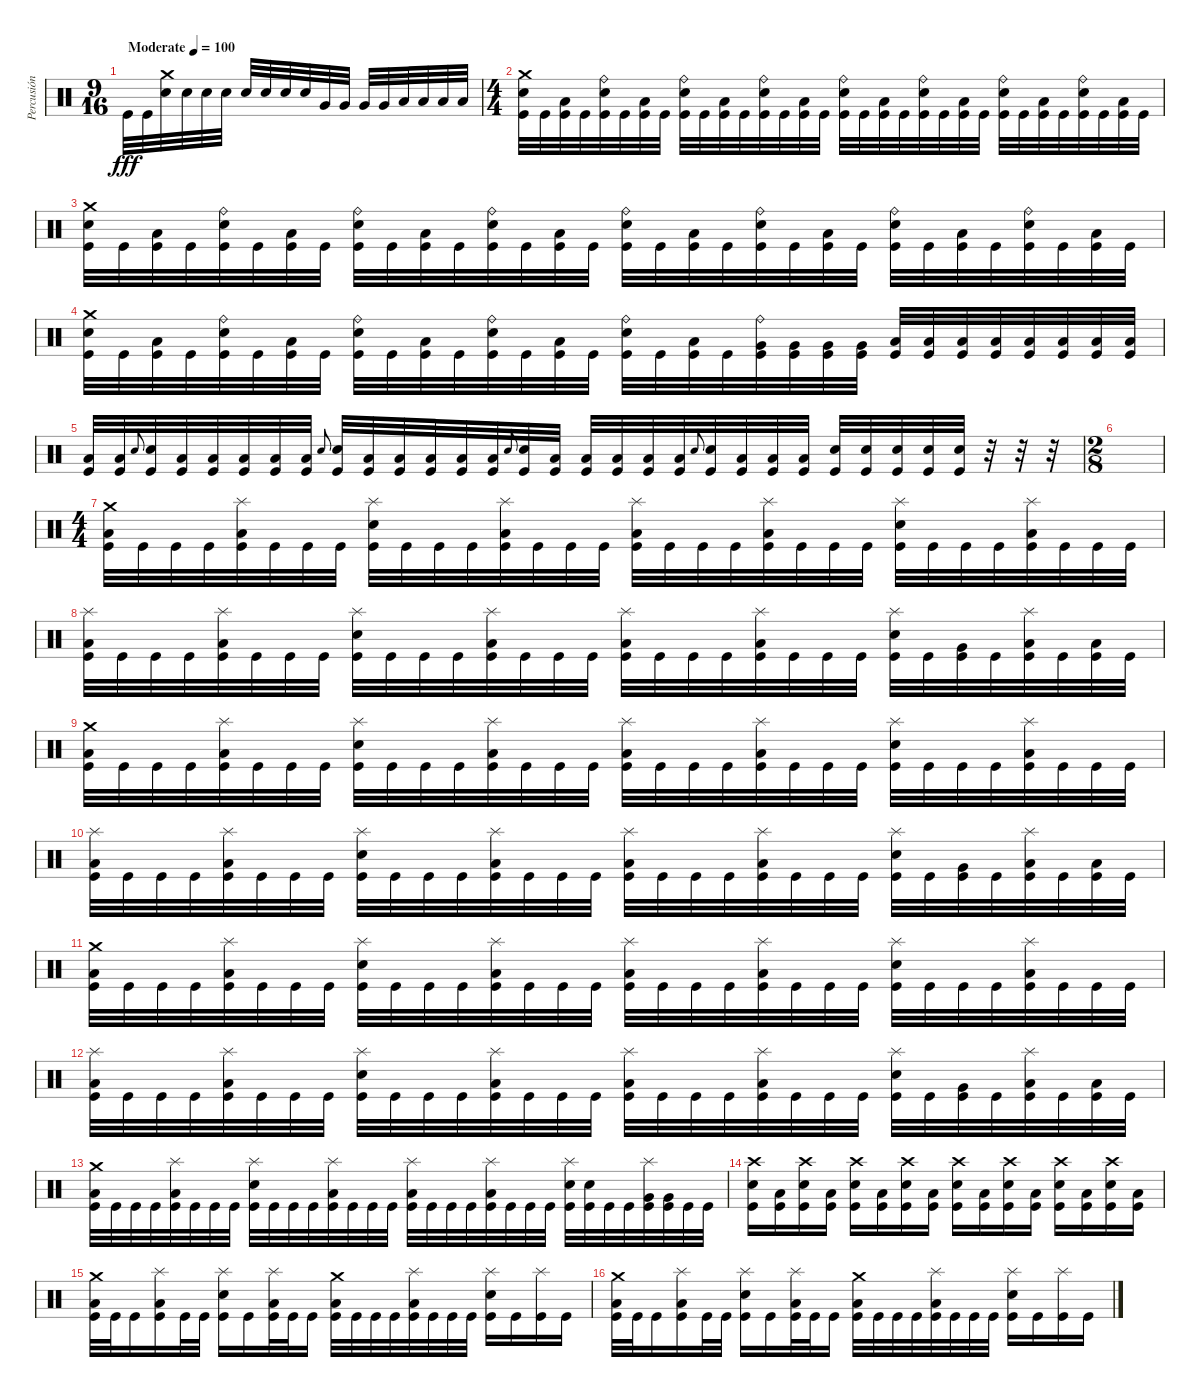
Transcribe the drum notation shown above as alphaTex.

\track ("Percusión" "Percusión") {instrument percussion}
\staff {score}
\articulation defaults
\ts (9 16)
\tempo (100 "Moderate")
\clef neutral
\ks c "Kick (hit)".32{dy fff} "Kick (hit)".32
("Crash medium (hit)" "Snare (hit) 2").32 "Snare (hit) 2".32 "Snare (hit) 2".32 "Snare (hit) 2".32 "Snare (hit) 2".32 "Snare (hit) 2".32 "Snare (hit) 2".32 "Snare (hit) 2".32 "Very Low Tom (hit)".32 "Very Low Tom (hit)".32 "Very Low Tom (hit)".32 "Very Low Tom (hit)".32 "Low Floor Tom (hit)".32 "Low Floor Tom (hit)".32 "Low Floor Tom (hit)".32 "Low Floor Tom (hit)".32 |
\ts (4 4)
("Crash medium (hit)" "Snare (hit) 2" "Kick (hit)").32 "Kick (hit)".32 ("Low Floor Tom (hit)" "Kick (hit)").32 "Kick (hit)".32 ("Ride (bell)" "Snare (hit) 2" "Kick (hit)").32 "Kick (hit)".32 ("Low Floor Tom (hit)" "Kick (hit)").32 "Kick (hit)".32 ("Ride (bell)" "Snare (hit) 2" "Kick (hit)").32 "Kick (hit)".32 ("Low Floor Tom (hit)" "Kick (hit)").32 "Kick (hit)".32 ("Ride (bell)" "Snare (hit) 2" "Kick (hit)").32 "Kick (hit)".32 ("Low Floor Tom (hit)" "Kick (hit)").32 "Kick (hit)".32 ("Ride (bell)" "Snare (hit) 2" "Kick (hit)").32 "Kick (hit)".32 ("Low Floor Tom (hit)" "Kick (hit)").32 "Kick (hit)".32 ("Ride (bell)" "Snare (hit) 2" "Kick (hit)").32 "Kick (hit)".32 ("Low Floor Tom (hit)" "Kick (hit)").32 "Kick (hit)".32 ("Ride (bell)" "Snare (hit) 2" "Kick (hit)").32 "Kick (hit)".32 ("Low Floor Tom (hit)" "Kick (hit)").32 "Kick (hit)".32 ("Ride (bell)" "Snare (hit) 2" "Kick (hit)").32 "Kick (hit)".32 ("Low Floor Tom (hit)" "Kick (hit)").32 "Kick (hit)".32 |
("Crash medium (hit)" "Snare (hit) 2" "Kick (hit)").32 "Kick (hit)".32 ("Low Floor Tom (hit)" "Kick (hit)").32 "Kick (hit)".32 ("Ride (bell)" "Snare (hit) 2" "Kick (hit)").32 "Kick (hit)".32 ("Low Floor Tom (hit)" "Kick (hit)").32 "Kick (hit)".32 ("Ride (bell)" "Snare (hit) 2" "Kick (hit)").32 "Kick (hit)".32 ("Low Floor Tom (hit)" "Kick (hit)").32 "Kick (hit)".32 ("Ride (bell)" "Snare (hit) 2" "Kick (hit)").32 "Kick (hit)".32 ("Low Floor Tom (hit)" "Kick (hit)").32 "Kick (hit)".32 ("Ride (bell)" "Snare (hit) 2" "Kick (hit)").32 "Kick (hit)".32 ("Low Floor Tom (hit)" "Kick (hit)").32 "Kick (hit)".32 ("Ride (bell)" "Snare (hit) 2" "Kick (hit)").32 "Kick (hit)".32 ("Low Floor Tom (hit)" "Kick (hit)").32 "Kick (hit)".32 ("Ride (bell)" "Snare (hit) 2" "Kick (hit)").32 "Kick (hit)".32 ("Low Floor Tom (hit)" "Kick (hit)").32 "Kick (hit)".32 ("Ride (bell)" "Snare (hit) 2" "Kick (hit)").32 "Kick (hit)".32 ("Low Floor Tom (hit)" "Kick (hit)").32 "Kick (hit)".32 |
("Crash medium (hit)" "Snare (hit) 2" "Kick (hit)").32 "Kick (hit)".32 ("Low Floor Tom (hit)" "Kick (hit)").32 "Kick (hit)".32 ("Ride (bell)" "Snare (hit) 2" "Kick (hit)").32 "Kick (hit)".32 ("Low Floor Tom (hit)" "Kick (hit)").32 "Kick (hit)".32 ("Ride (bell)" "Snare (hit) 2" "Kick (hit)").32 "Kick (hit)".32 ("Low Floor Tom (hit)" "Kick (hit)").32 "Kick (hit)".32 ("Ride (bell)" "Snare (hit) 2" "Kick (hit)").32 "Kick (hit)".32 ("Low Floor Tom (hit)" "Kick (hit)").32 "Kick (hit)".32 ("Ride (bell)" "Snare (hit) 2" "Kick (hit)").32 "Kick (hit)".32 ("Low Floor Tom (hit)" "Kick (hit)").32 "Kick (hit)".32 ("Ride (bell)" "Very Low Tom (hit)" "Kick (hit)").32 ("Very Low Tom (hit)" "Kick (hit)").32 ("Very Low Tom (hit)" "Kick (hit)").32 ("Very Low Tom (hit)" "Kick (hit)").32 ("Low Floor Tom (hit)" "Kick (hit)").32 ("Low Floor Tom (hit)" "Kick (hit)").32 ("Low Floor Tom (hit)" "Kick (hit)").32 ("Low Floor Tom (hit)" "Kick (hit)").32 ("Low Floor Tom (hit)" "Kick (hit)").32 ("Low Floor Tom (hit)" "Kick (hit)").32 ("Low Floor Tom (hit)" "Kick (hit)").32 ("Low Floor Tom (hit)" "Kick (hit)").32 |
("Low Floor Tom (hit)" "Kick (hit)").32 ("Low Floor Tom (hit)" "Kick (hit)").32 "Snare (hit) 2".8{gr onbeat} ("Snare (hit) 2" "Kick (hit)").32 ("Low Floor Tom (hit)" "Kick (hit)").32 ("Low Floor Tom (hit)" "Kick (hit)").32 ("Low Floor Tom (hit)" "Kick (hit)").32 ("Low Floor Tom (hit)" "Kick (hit)").32 ("Low Floor Tom (hit)" "Kick (hit)").32 "Snare (hit) 2".8{gr onbeat} ("Snare (hit) 2" "Kick (hit)").32 ("Low Floor Tom (hit)" "Kick (hit)").32 ("Low Floor Tom (hit)" "Kick (hit)").32 ("Low Floor Tom (hit)" "Kick (hit)").32 ("Low Floor Tom (hit)" "Kick (hit)").32 ("Low Floor Tom (hit)" "Kick (hit)").32 "Snare (hit) 2".8{gr onbeat} ("Snare (hit) 2" "Kick (hit)").32 ("Low Floor Tom (hit)" "Kick (hit)").32 ("Low Floor Tom (hit)" "Kick (hit)").32 ("Low Floor Tom (hit)" "Kick (hit)").32 ("Low Floor Tom (hit)" "Kick (hit)").32 ("Low Floor Tom (hit)" "Kick (hit)").32 "Snare (hit) 2".8{gr onbeat} ("Snare (hit) 2" "Kick (hit)").32 ("Low Floor Tom (hit)" "Kick (hit)").32 ("Low Floor Tom (hit)" "Kick (hit)").32 ("Low Floor Tom (hit)" "Kick (hit)").32 ("Snare (hit) 2" "Kick (hit)").32 ("Snare (hit) 2" "Kick (hit)").32 ("Snare (hit) 2" "Kick (hit)").32 ("Snare (hit) 2" "Kick (hit)").32 ("Snare (hit) 2" "Kick (hit)").32 r.32 r.32 r.32 |
\ts (2 8)
|
\ts (4 4)
("Crash medium (hit)" "Low Floor Tom (hit)" "Kick (hit)").32 "Kick (hit)".32 "Kick (hit)".32 "Kick (hit)".32 ("Splash (hit)" "Low Floor Tom (hit)" "Kick (hit)").32 "Kick (hit)".32 "Kick (hit)".32 "Kick (hit)".32 ("Splash (hit)" "Snare (hit) 2" "Kick (hit)").32 "Kick (hit)".32 "Kick (hit)".32 "Kick (hit)".32 ("Splash (hit)" "Low Floor Tom (hit)" "Kick (hit)").32 "Kick (hit)".32 "Kick (hit)".32 "Kick (hit)".32 ("Splash (hit)" "Low Floor Tom (hit)" "Kick (hit)").32 "Kick (hit)".32 "Kick (hit)".32 "Kick (hit)".32 ("Splash (hit)" "Low Floor Tom (hit)" "Kick (hit)").32 "Kick (hit)".32 "Kick (hit)".32 "Kick (hit)".32 ("Splash (hit)" "Snare (hit) 2" "Kick (hit)").32 "Kick (hit)".32 "Kick (hit)".32 "Kick (hit)".32 ("Splash (hit)" "Low Floor Tom (hit)" "Kick (hit)").32 "Kick (hit)".32 "Kick (hit)".32 "Kick (hit)".32 |
("Splash (hit)" "Low Floor Tom (hit)" "Kick (hit)").32 "Kick (hit)".32 "Kick (hit)".32 "Kick (hit)".32 ("Splash (hit)" "Low Floor Tom (hit)" "Kick (hit)").32 "Kick (hit)".32 "Kick (hit)".32 "Kick (hit)".32 ("Splash (hit)" "Snare (hit) 2" "Kick (hit)").32 "Kick (hit)".32 "Kick (hit)".32 "Kick (hit)".32 ("Splash (hit)" "Low Floor Tom (hit)" "Kick (hit)").32 "Kick (hit)".32 "Kick (hit)".32 "Kick (hit)".32 ("Splash (hit)" "Low Floor Tom (hit)" "Kick (hit)").32 "Kick (hit)".32 "Kick (hit)".32 "Kick (hit)".32 ("Splash (hit)" "Low Floor Tom (hit)" "Kick (hit)").32 "Kick (hit)".32 "Kick (hit)".32 "Kick (hit)".32 ("Splash (hit)" "Snare (hit) 2" "Kick (hit)").32 "Kick (hit)".32 ("Very Low Tom (hit)" "Kick (hit)").32 "Kick (hit)".32 ("Splash (hit)" "Low Floor Tom (hit)" "Kick (hit)").32 "Kick (hit)".32 ("Low Floor Tom (hit)" "Kick (hit)").32 "Kick (hit)".32 |
("Crash medium (hit)" "Low Floor Tom (hit)" "Kick (hit)").32 "Kick (hit)".32 "Kick (hit)".32 "Kick (hit)".32 ("Splash (hit)" "Low Floor Tom (hit)" "Kick (hit)").32 "Kick (hit)".32 "Kick (hit)".32 "Kick (hit)".32 ("Splash (hit)" "Snare (hit) 2" "Kick (hit)").32 "Kick (hit)".32 "Kick (hit)".32 "Kick (hit)".32 ("Splash (hit)" "Low Floor Tom (hit)" "Kick (hit)").32 "Kick (hit)".32 "Kick (hit)".32 "Kick (hit)".32 ("Splash (hit)" "Low Floor Tom (hit)" "Kick (hit)").32 "Kick (hit)".32 "Kick (hit)".32 "Kick (hit)".32 ("Splash (hit)" "Low Floor Tom (hit)" "Kick (hit)").32 "Kick (hit)".32 "Kick (hit)".32 "Kick (hit)".32 ("Splash (hit)" "Snare (hit) 2" "Kick (hit)").32 "Kick (hit)".32 "Kick (hit)".32 "Kick (hit)".32 ("Splash (hit)" "Low Floor Tom (hit)" "Kick (hit)").32 "Kick (hit)".32 "Kick (hit)".32 "Kick (hit)".32 |
("Splash (hit)" "Low Floor Tom (hit)" "Kick (hit)").32 "Kick (hit)".32 "Kick (hit)".32 "Kick (hit)".32 ("Splash (hit)" "Low Floor Tom (hit)" "Kick (hit)").32 "Kick (hit)".32 "Kick (hit)".32 "Kick (hit)".32 ("Splash (hit)" "Snare (hit) 2" "Kick (hit)").32 "Kick (hit)".32 "Kick (hit)".32 "Kick (hit)".32 ("Splash (hit)" "Low Floor Tom (hit)" "Kick (hit)").32 "Kick (hit)".32 "Kick (hit)".32 "Kick (hit)".32 ("Splash (hit)" "Low Floor Tom (hit)" "Kick (hit)").32 "Kick (hit)".32 "Kick (hit)".32 "Kick (hit)".32 ("Splash (hit)" "Low Floor Tom (hit)" "Kick (hit)").32 "Kick (hit)".32 "Kick (hit)".32 "Kick (hit)".32 ("Splash (hit)" "Snare (hit) 2" "Kick (hit)").32 "Kick (hit)".32 ("Very Low Tom (hit)" "Kick (hit)").32 "Kick (hit)".32 ("Splash (hit)" "Low Floor Tom (hit)" "Kick (hit)").32 "Kick (hit)".32 ("Low Floor Tom (hit)" "Kick (hit)").32 "Kick (hit)".32 |
("Crash medium (hit)" "Low Floor Tom (hit)" "Kick (hit)").32 "Kick (hit)".32 "Kick (hit)".32 "Kick (hit)".32 ("Splash (hit)" "Low Floor Tom (hit)" "Kick (hit)").32 "Kick (hit)".32 "Kick (hit)".32 "Kick (hit)".32 ("Splash (hit)" "Snare (hit) 2" "Kick (hit)").32 "Kick (hit)".32 "Kick (hit)".32 "Kick (hit)".32 ("Splash (hit)" "Low Floor Tom (hit)" "Kick (hit)").32 "Kick (hit)".32 "Kick (hit)".32 "Kick (hit)".32 ("Splash (hit)" "Low Floor Tom (hit)" "Kick (hit)").32 "Kick (hit)".32 "Kick (hit)".32 "Kick (hit)".32 ("Splash (hit)" "Low Floor Tom (hit)" "Kick (hit)").32 "Kick (hit)".32 "Kick (hit)".32 "Kick (hit)".32 ("Splash (hit)" "Snare (hit) 2" "Kick (hit)").32 "Kick (hit)".32 "Kick (hit)".32 "Kick (hit)".32 ("Splash (hit)" "Low Floor Tom (hit)" "Kick (hit)").32 "Kick (hit)".32 "Kick (hit)".32 "Kick (hit)".32 |
("Splash (hit)" "Low Floor Tom (hit)" "Kick (hit)").32 "Kick (hit)".32 "Kick (hit)".32 "Kick (hit)".32 ("Splash (hit)" "Low Floor Tom (hit)" "Kick (hit)").32 "Kick (hit)".32 "Kick (hit)".32 "Kick (hit)".32 ("Splash (hit)" "Snare (hit) 2" "Kick (hit)").32 "Kick (hit)".32 "Kick (hit)".32 "Kick (hit)".32 ("Splash (hit)" "Low Floor Tom (hit)" "Kick (hit)").32 "Kick (hit)".32 "Kick (hit)".32 "Kick (hit)".32 ("Splash (hit)" "Low Floor Tom (hit)" "Kick (hit)").32 "Kick (hit)".32 "Kick (hit)".32 "Kick (hit)".32 ("Splash (hit)" "Low Floor Tom (hit)" "Kick (hit)").32 "Kick (hit)".32 "Kick (hit)".32 "Kick (hit)".32 ("Splash (hit)" "Snare (hit) 2" "Kick (hit)").32 "Kick (hit)".32 ("Very Low Tom (hit)" "Kick (hit)").32 "Kick (hit)".32 ("Splash (hit)" "Low Floor Tom (hit)" "Kick (hit)").32 "Kick (hit)".32 ("Low Floor Tom (hit)" "Kick (hit)").32 "Kick (hit)".32 |
("Crash medium (hit)" "Low Floor Tom (hit)" "Kick (hit)").32 "Kick (hit)".32 "Kick (hit)".32 "Kick (hit)".32 ("Splash (hit)" "Low Floor Tom (hit)" "Kick (hit)").32 "Kick (hit)".32 "Kick (hit)".32 "Kick (hit)".32 ("Splash (hit)" "Snare (hit) 2" "Kick (hit)").32 "Kick (hit)".32 "Kick (hit)".32 "Kick (hit)".32 ("Splash (hit)" "Low Floor Tom (hit)" "Kick (hit)").32 "Kick (hit)".32 "Kick (hit)".32 "Kick (hit)".32 ("Splash (hit)" "Low Floor Tom (hit)" "Kick (hit)").32 "Kick (hit)".32 "Kick (hit)".32 "Kick (hit)".32 ("Splash (hit)" "Low Floor Tom (hit)" "Kick (hit)").32 "Kick (hit)".32 "Kick (hit)".32 "Kick (hit)".32 ("Splash (hit)" "Snare (hit) 2" "Kick (hit)").32 ("Snare (hit) 2" "Kick (hit)").32 "Kick (hit)".32 "Kick (hit)".32 ("Splash (hit)" "Very Low Tom (hit)" "Kick (hit)").32 ("Very Low Tom (hit)" "Kick (hit)").32 "Kick (hit)".32 "Kick (hit)".32 |
("Crash high (hit)" "Snare (hit) 2" "Kick (hit)").16 ("Low Floor Tom (hit)" "Kick (hit)").16 ("Crash high (hit)" "Snare (hit) 2" "Kick (hit)").16 ("Low Floor Tom (hit)" "Kick (hit)").16 ("Crash high (hit)" "Snare (hit) 2" "Kick (hit)").16 ("Low Floor Tom (hit)" "Kick (hit)").16 ("Crash high (hit)" "Snare (hit) 2" "Kick (hit)").16 ("Low Floor Tom (hit)" "Kick (hit)").16 ("Crash high (hit)" "Snare (hit) 2" "Kick (hit)").16 ("Low Floor Tom (hit)" "Kick (hit)").16 ("Crash high (hit)" "Snare (hit) 2" "Kick (hit)").16 ("Low Floor Tom (hit)" "Kick (hit)").16 ("Crash high (hit)" "Snare (hit) 2" "Kick (hit)").16 ("Low Floor Tom (hit)" "Kick (hit)").16 ("Crash high (hit)" "Snare (hit) 2" "Kick (hit)").16 ("Low Floor Tom (hit)" "Kick (hit)").16 |
("Crash medium (hit)" "Low Floor Tom (hit)" "Kick (hit)").32 "Kick (hit)".32 "Kick (hit)".16 ("Splash (hit)" "Low Floor Tom (hit)" "Kick (hit)").16 "Kick (hit)".32 "Kick (hit)".32 ("Splash (hit)" "Snare (hit) 2" "Kick (hit)").16 "Kick (hit)".16 ("Splash (hit)" "Low Floor Tom (hit)" "Kick (hit)").32 "Kick (hit)".32 "Kick (hit)".16 ("Crash medium (hit)" "Low Floor Tom (hit)" "Kick (hit)").32 "Kick (hit)".32 "Kick (hit)".32 "Kick (hit)".32 ("Splash (hit)" "Low Floor Tom (hit)" "Kick (hit)").32 "Kick (hit)".32 "Kick (hit)".32 "Kick (hit)".32 ("Splash (hit)" "Snare (hit) 2" "Kick (hit)").16 "Kick (hit)".16 ("Splash (hit)" "Kick (hit)").16 "Kick (hit)".16 |
("Crash medium (hit)" "Low Floor Tom (hit)" "Kick (hit)").32 "Kick (hit)".32 "Kick (hit)".16 ("Splash (hit)" "Low Floor Tom (hit)" "Kick (hit)").16 "Kick (hit)".32 "Kick (hit)".32 ("Splash (hit)" "Snare (hit) 2" "Kick (hit)").16 "Kick (hit)".16 ("Splash (hit)" "Low Floor Tom (hit)" "Kick (hit)").32 "Kick (hit)".32 "Kick (hit)".16 ("Crash medium (hit)" "Low Floor Tom (hit)" "Kick (hit)").32 "Kick (hit)".32 "Kick (hit)".32 "Kick (hit)".32 ("Splash (hit)" "Low Floor Tom (hit)" "Kick (hit)").32 "Kick (hit)".32 "Kick (hit)".32 "Kick (hit)".32 ("Splash (hit)" "Snare (hit) 2" "Kick (hit)").16 "Kick (hit)".16 ("Splash (hit)" "Kick (hit)").16 "Kick (hit)".16
